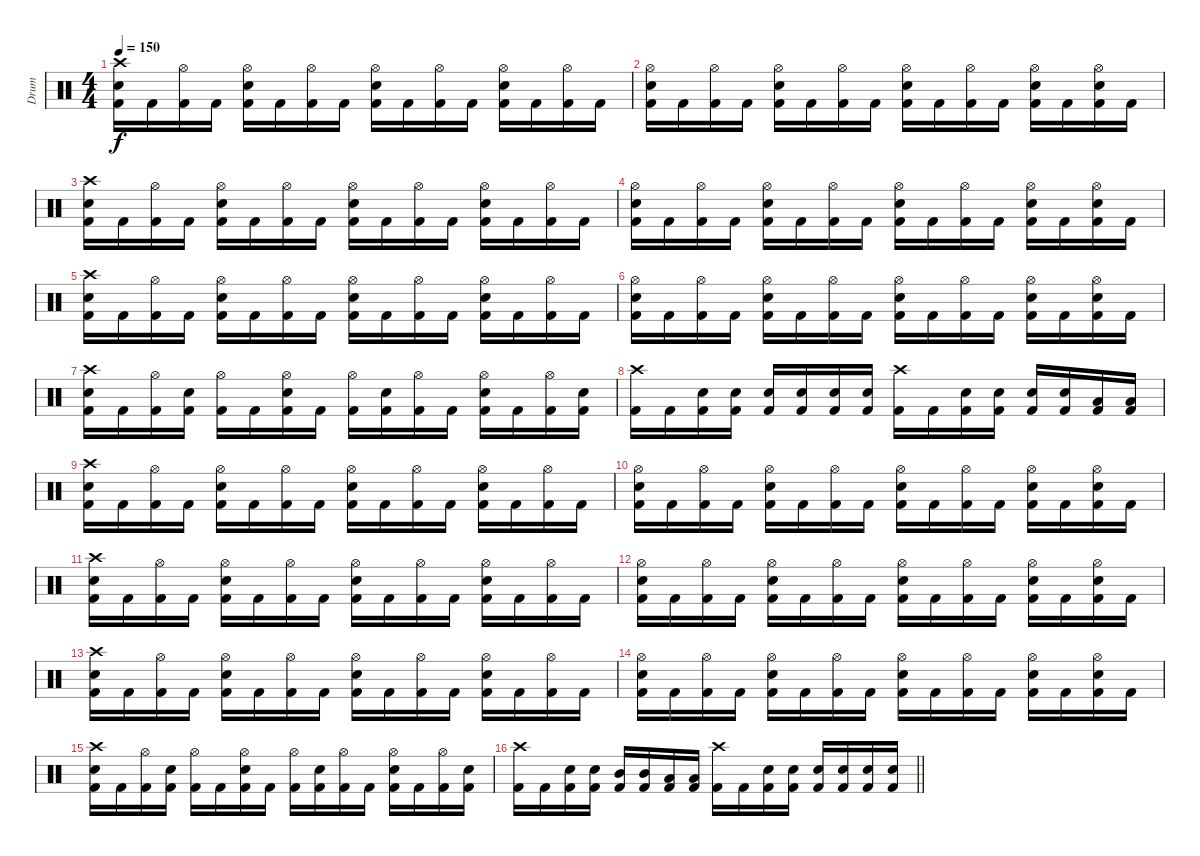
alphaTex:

\track ("Drum" "Drum") {instrument percussion}
\staff {score}
\articulation defaults
\ts (4 4)
\tempo 150
\clef neutral
\ks c
("Crash high (hit)" "Snare (hit) 2" "Kick (hit) 2").16{dy f} "Kick (hit) 2".16 ("Hi-Hat (open)" "Kick (hit) 2").16 "Kick (hit) 2".16 ("Hi-Hat (open)" "Snare (hit) 2" "Kick (hit) 2").16 "Kick (hit) 2".16 ("Hi-Hat (open)" "Kick (hit) 2").16 "Kick (hit) 2".16 ("Hi-Hat (open)" "Snare (hit) 2" "Kick (hit) 2").16 "Kick (hit) 2".16 ("Hi-Hat (open)" "Kick (hit) 2").16 "Kick (hit) 2".16 ("Hi-Hat (open)" "Snare (hit) 2" "Kick (hit) 2").16 "Kick (hit) 2".16 ("Hi-Hat (open)" "Kick (hit) 2").16 "Kick (hit) 2".16 |
("Hi-Hat (open)" "Snare (hit) 2" "Kick (hit) 2").16 "Kick (hit) 2".16 ("Hi-Hat (open)" "Kick (hit) 2").16 "Kick (hit) 2".16 ("Hi-Hat (open)" "Snare (hit) 2" "Kick (hit) 2").16 "Kick (hit) 2".16 ("Hi-Hat (open)" "Kick (hit) 2").16 "Kick (hit) 2".16 ("Hi-Hat (open)" "Snare (hit) 2" "Kick (hit) 2").16 "Kick (hit) 2".16 ("Hi-Hat (open)" "Kick (hit) 2").16 "Kick (hit) 2".16 ("Hi-Hat (open)" "Snare (hit) 2" "Kick (hit) 2").16 "Kick (hit) 2".16 ("Hi-Hat (open)" "Snare (hit) 2" "Kick (hit) 2").16 "Kick (hit) 2".16 |
("Crash high (hit)" "Snare (hit) 2" "Kick (hit) 2").16 "Kick (hit) 2".16 ("Hi-Hat (open)" "Kick (hit) 2").16 "Kick (hit) 2".16 ("Hi-Hat (open)" "Snare (hit) 2" "Kick (hit) 2").16 "Kick (hit) 2".16 ("Hi-Hat (open)" "Kick (hit) 2").16 "Kick (hit) 2".16 ("Hi-Hat (open)" "Snare (hit) 2" "Kick (hit) 2").16 "Kick (hit) 2".16 ("Hi-Hat (open)" "Kick (hit) 2").16 "Kick (hit) 2".16 ("Hi-Hat (open)" "Snare (hit) 2" "Kick (hit) 2").16 "Kick (hit) 2".16 ("Hi-Hat (open)" "Kick (hit) 2").16 "Kick (hit) 2".16 |
("Hi-Hat (open)" "Snare (hit) 2" "Kick (hit) 2").16 "Kick (hit) 2".16 ("Hi-Hat (open)" "Kick (hit) 2").16 "Kick (hit) 2".16 ("Hi-Hat (open)" "Snare (hit) 2" "Kick (hit) 2").16 "Kick (hit) 2".16 ("Hi-Hat (open)" "Kick (hit) 2").16 "Kick (hit) 2".16 ("Hi-Hat (open)" "Snare (hit) 2" "Kick (hit) 2").16 "Kick (hit) 2".16 ("Hi-Hat (open)" "Kick (hit) 2").16 "Kick (hit) 2".16 ("Hi-Hat (open)" "Snare (hit) 2" "Kick (hit) 2").16 "Kick (hit) 2".16 ("Hi-Hat (open)" "Snare (hit) 2" "Kick (hit) 2").16 "Kick (hit) 2".16 |
("Crash high (hit)" "Snare (hit) 2" "Kick (hit) 2").16 "Kick (hit) 2".16 ("Hi-Hat (open)" "Kick (hit) 2").16 "Kick (hit) 2".16 ("Hi-Hat (open)" "Snare (hit) 2" "Kick (hit) 2").16 "Kick (hit) 2".16 ("Hi-Hat (open)" "Kick (hit) 2").16 "Kick (hit) 2".16 ("Hi-Hat (open)" "Snare (hit) 2" "Kick (hit) 2").16 "Kick (hit) 2".16 ("Hi-Hat (open)" "Kick (hit) 2").16 "Kick (hit) 2".16 ("Hi-Hat (open)" "Snare (hit) 2" "Kick (hit) 2").16 "Kick (hit) 2".16 ("Hi-Hat (open)" "Kick (hit) 2").16 "Kick (hit) 2".16 |
("Hi-Hat (open)" "Snare (hit) 2" "Kick (hit) 2").16 "Kick (hit) 2".16 ("Hi-Hat (open)" "Kick (hit) 2").16 "Kick (hit) 2".16 ("Hi-Hat (open)" "Snare (hit) 2" "Kick (hit) 2").16 "Kick (hit) 2".16 ("Hi-Hat (open)" "Kick (hit) 2").16 "Kick (hit) 2".16 ("Hi-Hat (open)" "Snare (hit) 2" "Kick (hit) 2").16 "Kick (hit) 2".16 ("Hi-Hat (open)" "Kick (hit) 2").16 "Kick (hit) 2".16 ("Hi-Hat (open)" "Snare (hit) 2" "Kick (hit) 2").16 "Kick (hit) 2".16 ("Hi-Hat (open)" "Snare (hit) 2" "Kick (hit) 2").16 "Kick (hit) 2".16 |
("Crash high (hit)" "Snare (hit) 2" "Kick (hit) 2").16 "Kick (hit) 2".16 ("Hi-Hat (open)" "Kick (hit) 2").16 ("Snare (hit) 2" "Kick (hit) 2").16 ("Hi-Hat (open)" "Kick (hit) 2").16 "Kick (hit) 2".16 ("Hi-Hat (open)" "Snare (hit) 2" "Kick (hit) 2").16 "Kick (hit) 2".16 ("Hi-Hat (open)" "Kick (hit) 2").16 ("Snare (hit) 2" "Kick (hit) 2").16 ("Hi-Hat (open)" "Kick (hit) 2").16 "Kick (hit) 2".16 ("Hi-Hat (open)" "Snare (hit) 2" "Kick (hit) 2").16 "Kick (hit) 2".16 ("Hi-Hat (open)" "Kick (hit) 2").16 ("Snare (hit) 2" "Kick (hit) 2").16 |
("Crash high (hit)" "Kick (hit) 2").16 "Kick (hit) 2".16 ("Snare (hit) 2" "Kick (hit) 2").16 ("Snare (hit) 2" "Kick (hit) 2").16 ("Snare (hit) 2" "Kick (hit) 2").16 ("Snare (hit) 2" "Kick (hit) 2").16 ("Snare (hit) 2" "Kick (hit) 2").16 ("Snare (hit) 2" "Kick (hit) 2").16 ("Crash high (hit)" "Kick (hit) 2").16 "Kick (hit) 2".16 ("Snare (hit) 2" "Kick (hit) 2").16 ("Snare (hit) 2" "Kick (hit) 2").16 ("Snare (hit) 2" "Kick (hit) 2").16 ("Snare (hit) 2" "Kick (hit) 2").16 ("Low Tom (hit)" "Kick (hit) 2").16 ("Low Tom (hit)" "Kick (hit) 2").16 |
("Crash high (hit)" "Snare (hit) 2" "Kick (hit) 2").16 "Kick (hit) 2".16 ("Hi-Hat (open)" "Kick (hit) 2").16 "Kick (hit) 2".16 ("Hi-Hat (open)" "Snare (hit) 2" "Kick (hit) 2").16 "Kick (hit) 2".16 ("Hi-Hat (open)" "Kick (hit) 2").16 "Kick (hit) 2".16 ("Hi-Hat (open)" "Snare (hit) 2" "Kick (hit) 2").16 "Kick (hit) 2".16 ("Hi-Hat (open)" "Kick (hit) 2").16 "Kick (hit) 2".16 ("Hi-Hat (open)" "Snare (hit) 2" "Kick (hit) 2").16 "Kick (hit) 2".16 ("Hi-Hat (open)" "Kick (hit) 2").16 "Kick (hit) 2".16 |
("Hi-Hat (open)" "Snare (hit) 2" "Kick (hit) 2").16 "Kick (hit) 2".16 ("Hi-Hat (open)" "Kick (hit) 2").16 "Kick (hit) 2".16 ("Hi-Hat (open)" "Snare (hit) 2" "Kick (hit) 2").16 "Kick (hit) 2".16 ("Hi-Hat (open)" "Kick (hit) 2").16 "Kick (hit) 2".16 ("Hi-Hat (open)" "Snare (hit) 2" "Kick (hit) 2").16 "Kick (hit) 2".16 ("Hi-Hat (open)" "Kick (hit) 2").16 "Kick (hit) 2".16 ("Hi-Hat (open)" "Snare (hit) 2" "Kick (hit) 2").16 "Kick (hit) 2".16 ("Hi-Hat (open)" "Snare (hit) 2" "Kick (hit) 2").16 "Kick (hit) 2".16 |
("Crash high (hit)" "Snare (hit) 2" "Kick (hit) 2").16 "Kick (hit) 2".16 ("Hi-Hat (open)" "Kick (hit) 2").16 "Kick (hit) 2".16 ("Hi-Hat (open)" "Snare (hit) 2" "Kick (hit) 2").16 "Kick (hit) 2".16 ("Hi-Hat (open)" "Kick (hit) 2").16 "Kick (hit) 2".16 ("Hi-Hat (open)" "Snare (hit) 2" "Kick (hit) 2").16 "Kick (hit) 2".16 ("Hi-Hat (open)" "Kick (hit) 2").16 "Kick (hit) 2".16 ("Hi-Hat (open)" "Snare (hit) 2" "Kick (hit) 2").16 "Kick (hit) 2".16 ("Hi-Hat (open)" "Kick (hit) 2").16 "Kick (hit) 2".16 |
("Hi-Hat (open)" "Snare (hit) 2" "Kick (hit) 2").16 "Kick (hit) 2".16 ("Hi-Hat (open)" "Kick (hit) 2").16 "Kick (hit) 2".16 ("Hi-Hat (open)" "Snare (hit) 2" "Kick (hit) 2").16 "Kick (hit) 2".16 ("Hi-Hat (open)" "Kick (hit) 2").16 "Kick (hit) 2".16 ("Hi-Hat (open)" "Snare (hit) 2" "Kick (hit) 2").16 "Kick (hit) 2".16 ("Hi-Hat (open)" "Kick (hit) 2").16 "Kick (hit) 2".16 ("Hi-Hat (open)" "Snare (hit) 2" "Kick (hit) 2").16 "Kick (hit) 2".16 ("Hi-Hat (open)" "Snare (hit) 2" "Kick (hit) 2").16 "Kick (hit) 2".16 |
("Crash high (hit)" "Snare (hit) 2" "Kick (hit) 2").16 "Kick (hit) 2".16 ("Hi-Hat (open)" "Kick (hit) 2").16 "Kick (hit) 2".16 ("Hi-Hat (open)" "Snare (hit) 2" "Kick (hit) 2").16 "Kick (hit) 2".16 ("Hi-Hat (open)" "Kick (hit) 2").16 "Kick (hit) 2".16 ("Hi-Hat (open)" "Snare (hit) 2" "Kick (hit) 2").16 "Kick (hit) 2".16 ("Hi-Hat (open)" "Kick (hit) 2").16 "Kick (hit) 2".16 ("Hi-Hat (open)" "Snare (hit) 2" "Kick (hit) 2").16 "Kick (hit) 2".16 ("Hi-Hat (open)" "Kick (hit) 2").16 "Kick (hit) 2".16 |
("Hi-Hat (open)" "Snare (hit) 2" "Kick (hit) 2").16 "Kick (hit) 2".16 ("Hi-Hat (open)" "Kick (hit) 2").16 "Kick (hit) 2".16 ("Hi-Hat (open)" "Snare (hit) 2" "Kick (hit) 2").16 "Kick (hit) 2".16 ("Hi-Hat (open)" "Kick (hit) 2").16 "Kick (hit) 2".16 ("Hi-Hat (open)" "Snare (hit) 2" "Kick (hit) 2").16 "Kick (hit) 2".16 ("Hi-Hat (open)" "Kick (hit) 2").16 "Kick (hit) 2".16 ("Hi-Hat (open)" "Snare (hit) 2" "Kick (hit) 2").16 "Kick (hit) 2".16 ("Hi-Hat (open)" "Snare (hit) 2" "Kick (hit) 2").16 "Kick (hit) 2".16 |
("Crash high (hit)" "Snare (hit) 2" "Kick (hit) 2").16 "Kick (hit) 2".16 ("Hi-Hat (open)" "Kick (hit) 2").16 ("Snare (hit) 2" "Kick (hit) 2").16 ("Hi-Hat (open)" "Kick (hit) 2").16 "Kick (hit) 2".16 ("Hi-Hat (open)" "Snare (hit) 2" "Kick (hit) 2").16 "Kick (hit) 2".16 ("Hi-Hat (open)" "Kick (hit) 2").16 ("Snare (hit) 2" "Kick (hit) 2").16 ("Hi-Hat (open)" "Kick (hit) 2").16 "Kick (hit) 2".16 ("Hi-Hat (open)" "Snare (hit) 2" "Kick (hit) 2").16 "Kick (hit) 2".16 ("Hi-Hat (open)" "Kick (hit) 2").16 ("Snare (hit) 2" "Kick (hit) 2").16 |
\barLineRight lightlight
("Crash high (hit)" "Kick (hit) 2").16 "Kick (hit) 2".16 ("Snare (hit) 2" "Kick (hit) 2").16 ("Snare (hit) 2" "Kick (hit) 2").16 ("Mid Tom (hit)" "Kick (hit) 2").16 ("Mid Tom (hit)" "Kick (hit) 2").16 ("Low Tom (hit)" "Kick (hit) 2").16 ("Low Tom (hit)" "Kick (hit) 2").16 ("Crash high (hit)" "Kick (hit) 2").16 "Kick (hit) 2".16 ("Snare (hit) 2" "Kick (hit) 2").16 ("Snare (hit) 2" "Kick (hit) 2").16 ("Snare (hit) 2" "Kick (hit) 2").16 ("Snare (hit) 2" "Kick (hit) 2").16 ("Snare (hit) 2" "Kick (hit) 2").16 ("Snare (hit) 2" "Kick (hit) 2").16
